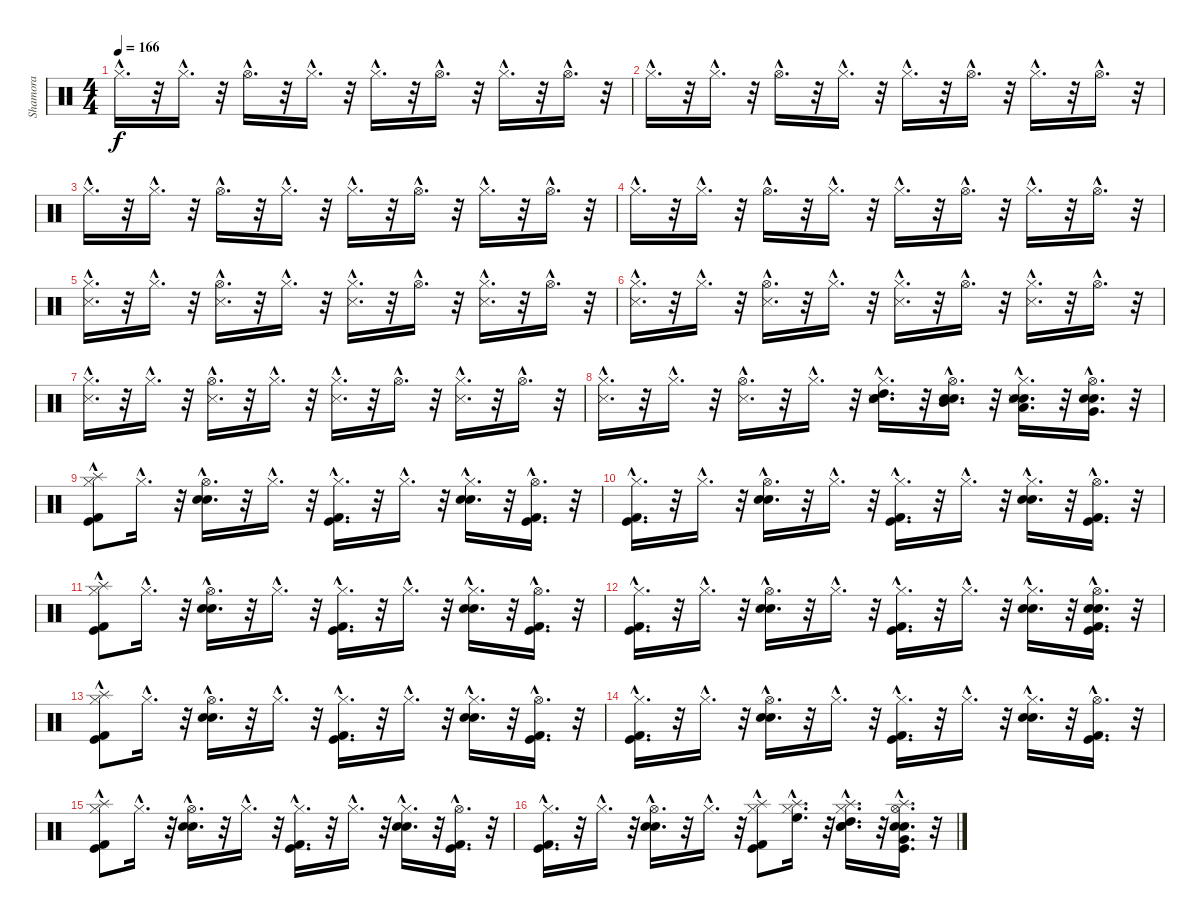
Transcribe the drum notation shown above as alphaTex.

\track ("Shamora" "Shamora") {instrument percussion}
\staff {score}
\articulation defaults
\ts (4 4)
\tempo 166
\clef neutral
\ks c "Hi-Hat (closed)"{hac}.16{d dy f}
r.32 "Hi-Hat (closed)"{hac}.16{d} r.32 "Hi-Hat (open)"{hac}.16{d} r.32 "Hi-Hat (closed)"{hac}.16{d} r.32 "Hi-Hat (closed)"{hac}.16{d} r.32 "Hi-Hat (open)"{hac}.16{d} r.32 "Hi-Hat (closed)"{hac}.16{d} r.32 "Hi-Hat (open)"{hac}.16{d} r.32 |
"Hi-Hat (closed)"{hac}.16{d} r.32 "Hi-Hat (closed)"{hac}.16{d} r.32 "Hi-Hat (open)"{hac}.16{d} r.32 "Hi-Hat (closed)"{hac}.16{d} r.32 "Hi-Hat (closed)"{hac}.16{d} r.32 "Hi-Hat (open)"{hac}.16{d} r.32 "Hi-Hat (closed)"{hac}.16{d} r.32 "Hi-Hat (open)"{hac}.16{d} r.32 |
"Hi-Hat (closed)"{hac}.16{d} r.32 "Hi-Hat (closed)"{hac}.16{d} r.32 "Hi-Hat (open)"{hac}.16{d} r.32 "Hi-Hat (closed)"{hac}.16{d} r.32 "Hi-Hat (closed)"{hac}.16{d} r.32 "Hi-Hat (open)"{hac}.16{d} r.32 "Hi-Hat (closed)"{hac}.16{d} r.32 "Hi-Hat (open)"{hac}.16{d} r.32 |
"Hi-Hat (closed)"{hac}.16{d} r.32 "Hi-Hat (closed)"{hac}.16{d} r.32 "Hi-Hat (open)"{hac}.16{d} r.32 "Hi-Hat (closed)"{hac}.16{d} r.32 "Hi-Hat (closed)"{hac}.16{d} r.32 "Hi-Hat (open)"{hac}.16{d} r.32 "Hi-Hat (closed)"{hac}.16{d} r.32 "Hi-Hat (open)"{hac}.16{d} r.32 |
("Snare (side stick) 3"{hac} "Hi-Hat (closed)"{hac}).16{d} r.32 "Hi-Hat (closed)"{hac}.16{d} r.32 ("Snare (side stick) 3"{hac} "Hi-Hat (open)"{hac}).16{d} r.32 "Hi-Hat (closed)"{hac}.16{d} r.32 ("Snare (side stick) 3"{hac} "Hi-Hat (closed)"{hac}).16{d} r.32 "Hi-Hat (open)"{hac}.16{d} r.32 ("Snare (side stick) 3"{hac} "Hi-Hat (closed)"{hac}).16{d} r.32 "Hi-Hat (open)"{hac}.16{d} r.32 |
("Snare (side stick) 3"{hac} "Hi-Hat (closed)"{hac}).16{d} r.32 "Hi-Hat (closed)"{hac}.16{d} r.32 ("Snare (side stick) 3"{hac} "Hi-Hat (open)"{hac}).16{d} r.32 "Hi-Hat (closed)"{hac}.16{d} r.32 ("Snare (side stick) 3"{hac} "Hi-Hat (closed)"{hac}).16{d} r.32 "Hi-Hat (open)"{hac}.16{d} r.32 ("Snare (side stick) 3"{hac} "Hi-Hat (closed)"{hac}).16{d} r.32 "Hi-Hat (open)"{hac}.16{d} r.32 |
("Snare (side stick) 3"{hac} "Hi-Hat (closed)"{hac}).16{d} r.32 "Hi-Hat (closed)"{hac}.16{d} r.32 ("Snare (side stick) 3"{hac} "Hi-Hat (open)"{hac}).16{d} r.32 "Hi-Hat (closed)"{hac}.16{d} r.32 ("Snare (side stick) 3"{hac} "Hi-Hat (closed)"{hac}).16{d} r.32 "Hi-Hat (open)"{hac}.16{d} r.32 ("Snare (side stick) 3"{hac} "Hi-Hat (closed)"{hac}).16{d} r.32 "Hi-Hat (open)"{hac}.16{d} r.32 |
("Snare (side stick) 3"{hac} "Hi-Hat (closed)"{hac}).16{d} r.32 "Hi-Hat (closed)"{hac}.16{d} r.32 ("Snare (side stick) 3"{hac} "Hi-Hat (open)"{hac}).16{d} r.32 "Hi-Hat (closed)"{hac}.16{d} r.32 ("Snare (hit) 2"{hac} "Electric Snare (hit)"{hac} "High Tom (hit)"{hac} "Snare (side stick) 3"{hac} "Hi-Hat (closed)"{hac}).16{d} r.32 ("Snare (hit) 2"{hac} "Electric Snare (hit)"{hac} "Mid Tom (hit)"{hac} "Hi-Hat (open)"{hac}).16{d} r.32 ("Snare (hit) 2"{hac} "Electric Snare (hit)"{hac} "Low Tom (hit)"{hac} "Snare (side stick) 3"{hac} "Hi-Hat (closed)"{hac}).16{d} r.32 ("Electric Snare (hit)"{hac} "Snare (hit) 2"{hac} "Very Low Tom (hit)"{hac} "Hi-Hat (open)"{hac}).16{d} r.32 |
("Hi-Hat (closed)"{hac} "Kick (hit) 2"{hac} "Kick (hit)"{hac} "Splash (hit)").8 "Hi-Hat (closed)"{hac}.16{d} r.32 ("Hi-Hat (open)"{hac} "Snare (hit) 2"{hac} "Electric Snare (hit)"{hac}).16{d} r.32 "Hi-Hat (closed)"{hac}.16{d} r.32 ("Hi-Hat (closed)"{hac} "Kick (hit)"{hac} "Kick (hit) 2"{hac}).16{d} r.32 "Hi-Hat (closed)"{hac}.16{d} r.32 ("Hi-Hat (closed)"{hac} "Snare (hit) 2"{hac} "Electric Snare (hit)"{hac}).16{d} r.32 ("Hi-Hat (open)"{hac} "Kick (hit)"{hac} "Kick (hit) 2"{hac}).16{d} r.32 |
("Hi-Hat (closed)"{hac} "Kick (hit) 2"{hac} "Kick (hit)"{hac}).16{d} r.32 "Hi-Hat (closed)"{hac}.16{d} r.32 ("Hi-Hat (open)"{hac} "Snare (hit) 2"{hac} "Electric Snare (hit)"{hac}).16{d} r.32 "Hi-Hat (closed)"{hac}.16{d} r.32 ("Hi-Hat (closed)"{hac} "Kick (hit)"{hac} "Kick (hit) 2"{hac}).16{d} r.32 "Hi-Hat (closed)"{hac}.16{d} r.32 ("Hi-Hat (closed)"{hac} "Snare (hit) 2"{hac} "Electric Snare (hit)"{hac}).16{d} r.32 ("Hi-Hat (open)"{hac} "Kick (hit)"{hac} "Kick (hit) 2"{hac}).16{d} r.32 |
("Splash (hit)" "Hi-Hat (closed)"{hac} "Kick (hit) 2"{hac} "Kick (hit)"{hac}).8 "Hi-Hat (closed)"{hac}.16{d} r.32 ("Hi-Hat (open)"{hac} "Snare (hit) 2"{hac} "Electric Snare (hit)"{hac}).16{d} r.32 "Hi-Hat (closed)"{hac}.16{d} r.32 ("Hi-Hat (closed)"{hac} "Kick (hit)"{hac} "Kick (hit) 2"{hac}).16{d} r.32 "Hi-Hat (closed)"{hac}.16{d} r.32 ("Hi-Hat (closed)"{hac} "Snare (hit) 2"{hac} "Electric Snare (hit)"{hac}).16{d} r.32 ("Hi-Hat (open)"{hac} "Kick (hit)"{hac} "Kick (hit) 2"{hac}).16{d} r.32 |
("Hi-Hat (closed)"{hac} "Kick (hit) 2"{hac} "Kick (hit)"{hac}).16{d} r.32 "Hi-Hat (closed)"{hac}.16{d} r.32 ("Hi-Hat (open)"{hac} "Snare (hit) 2"{hac} "Electric Snare (hit)"{hac}).16{d} r.32 "Hi-Hat (closed)"{hac}.16{d} r.32 ("Hi-Hat (closed)"{hac} "Kick (hit)"{hac} "Kick (hit) 2"{hac}).16{d} r.32 "Hi-Hat (closed)"{hac}.16{d} r.32 ("Hi-Hat (closed)"{hac} "Snare (hit) 2"{hac} "Electric Snare (hit)"{hac}).16{d} r.32 ("Snare (hit) 2"{hac} "Electric Snare (hit)"{hac} "Hi-Hat (open)"{hac} "Kick (hit)"{hac} "Kick (hit) 2"{hac}).16{d} r.32 |
("Hi-Hat (closed)"{hac} "Kick (hit) 2"{hac} "Kick (hit)"{hac} "Splash (hit)").8 "Hi-Hat (closed)"{hac}.16{d} r.32 ("Hi-Hat (open)"{hac} "Snare (hit) 2"{hac} "Electric Snare (hit)"{hac}).16{d} r.32 "Hi-Hat (closed)"{hac}.16{d} r.32 ("Hi-Hat (closed)"{hac} "Kick (hit)"{hac} "Kick (hit) 2"{hac}).16{d} r.32 "Hi-Hat (closed)"{hac}.16{d} r.32 ("Hi-Hat (closed)"{hac} "Snare (hit) 2"{hac} "Electric Snare (hit)"{hac}).16{d} r.32 ("Hi-Hat (open)"{hac} "Kick (hit)"{hac} "Kick (hit) 2"{hac}).16{d} r.32 |
("Hi-Hat (closed)"{hac} "Kick (hit) 2"{hac} "Kick (hit)"{hac}).16{d} r.32 "Hi-Hat (closed)"{hac}.16{d} r.32 ("Hi-Hat (open)"{hac} "Snare (hit) 2"{hac} "Electric Snare (hit)"{hac}).16{d} r.32 "Hi-Hat (closed)"{hac}.16{d} r.32 ("Hi-Hat (closed)"{hac} "Kick (hit)"{hac} "Kick (hit) 2"{hac}).16{d} r.32 "Hi-Hat (closed)"{hac}.16{d} r.32 ("Hi-Hat (closed)"{hac} "Snare (hit) 2"{hac} "Electric Snare (hit)"{hac}).16{d} r.32 ("Hi-Hat (open)"{hac} "Kick (hit)"{hac} "Kick (hit) 2"{hac}).16{d} r.32 |
("Splash (hit)" "Hi-Hat (closed)"{hac} "Kick (hit) 2"{hac} "Kick (hit)"{hac}).8 "Hi-Hat (closed)"{hac}.16{d} r.32 ("Hi-Hat (open)"{hac} "Snare (hit) 2"{hac} "Electric Snare (hit)"{hac}).16{d} r.32 "Hi-Hat (closed)"{hac}.16{d} r.32 ("Hi-Hat (closed)"{hac} "Kick (hit)"{hac} "Kick (hit) 2"{hac}).16{d} r.32 "Hi-Hat (closed)"{hac}.16{d} r.32 ("Hi-Hat (closed)"{hac} "Snare (hit) 2"{hac} "Electric Snare (hit)"{hac}).16{d} r.32 ("Hi-Hat (open)"{hac} "Kick (hit)"{hac} "Kick (hit) 2"{hac}).16{d} r.32 |
("Hi-Hat (closed)"{hac} "Kick (hit) 2"{hac} "Kick (hit)"{hac}).16{d} r.32 "Hi-Hat (closed)"{hac}.16{d} r.32 ("Hi-Hat (open)"{hac} "Snare (hit) 2"{hac} "Electric Snare (hit)"{hac}).16{d} r.32 "Hi-Hat (closed)"{hac}.16{d} r.32 ("Splash (hit)"{hac} "Hi-Hat (closed)"{hac} "Kick (hit)"{hac} "Kick (hit) 2"{hac}).8 ("High Floor Tom (hit)"{hac} "Splash (hit)"{hac} "Hi-Hat (closed)"{hac}).16{d} r.32 ("High Tom (hit)"{hac} "Splash (hit)"{hac} "Hi-Hat (closed)"{hac} "Snare (hit) 2"{hac} "Electric Snare (hit)"{hac}).16{d} r.32 ("Very Low Tom (hit)"{hac} "Splash (hit)"{hac} "Snare (hit) 2"{hac} "Electric Snare (hit)"{hac} "Hi-Hat (open)"{hac} "Kick (hit)"{hac}).16{d} r.32
